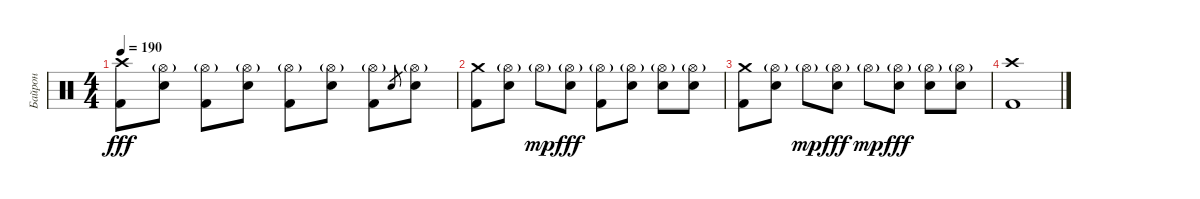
\track ("Байрон" "Байрон") {instrument percussion}
\staff {score}
\articulation defaults
\ts (4 4)
\tempo 190
\clef neutral
\ks c
("Crash high (hit)" "Kick (hit) 2").8{dy fff} ("Hi-Hat (open)"{g} "Electric Snare (hit)").8 ("Hi-Hat (open)"{g} "Kick (hit) 2").8 ("Hi-Hat (open)"{g} "Electric Snare (hit)").8 ("Hi-Hat (open)"{g} "Kick (hit) 2").8 ("Hi-Hat (open)"{g} "Electric Snare (hit)").8 ("Hi-Hat (open)"{g} "Kick (hit) 2").8 "Electric Snare (hit)".8{gr} ("Hi-Hat (open)"{g} "Electric Snare (hit)").8 |
("Crash medium (hit)" "Kick (hit) 2").8 ("Hi-Hat (open)"{g} "Electric Snare (hit)").8 "Hi-Hat (open)"{g}.8{dy mp} ("Hi-Hat (open)"{g} "Electric Snare (hit)").8{dy fff} ("Hi-Hat (open)"{g} "Kick (hit) 2").8 ("Hi-Hat (open)"{g} "Electric Snare (hit)").8 ("Hi-Hat (open)"{g} "Electric Snare (hit)").8 ("Hi-Hat (open)"{g} "Electric Snare (hit)").8 |
("Crash medium (hit)" "Kick (hit) 2").8 ("Hi-Hat (open)"{g} "Electric Snare (hit)").8 "Hi-Hat (open)"{g}.8{dy mp} ("Hi-Hat (open)"{g} "Electric Snare (hit)").8{dy fff} "Hi-Hat (open)"{g}.8{dy mp} ("Hi-Hat (open)"{g} "Electric Snare (hit)").8{dy fff} ("Hi-Hat (open)"{g} "Electric Snare (hit)").8 ("Hi-Hat (open)"{g} "Electric Snare (hit)").8 |
("Crash high (hit)" "Kick (hit) 2").1
